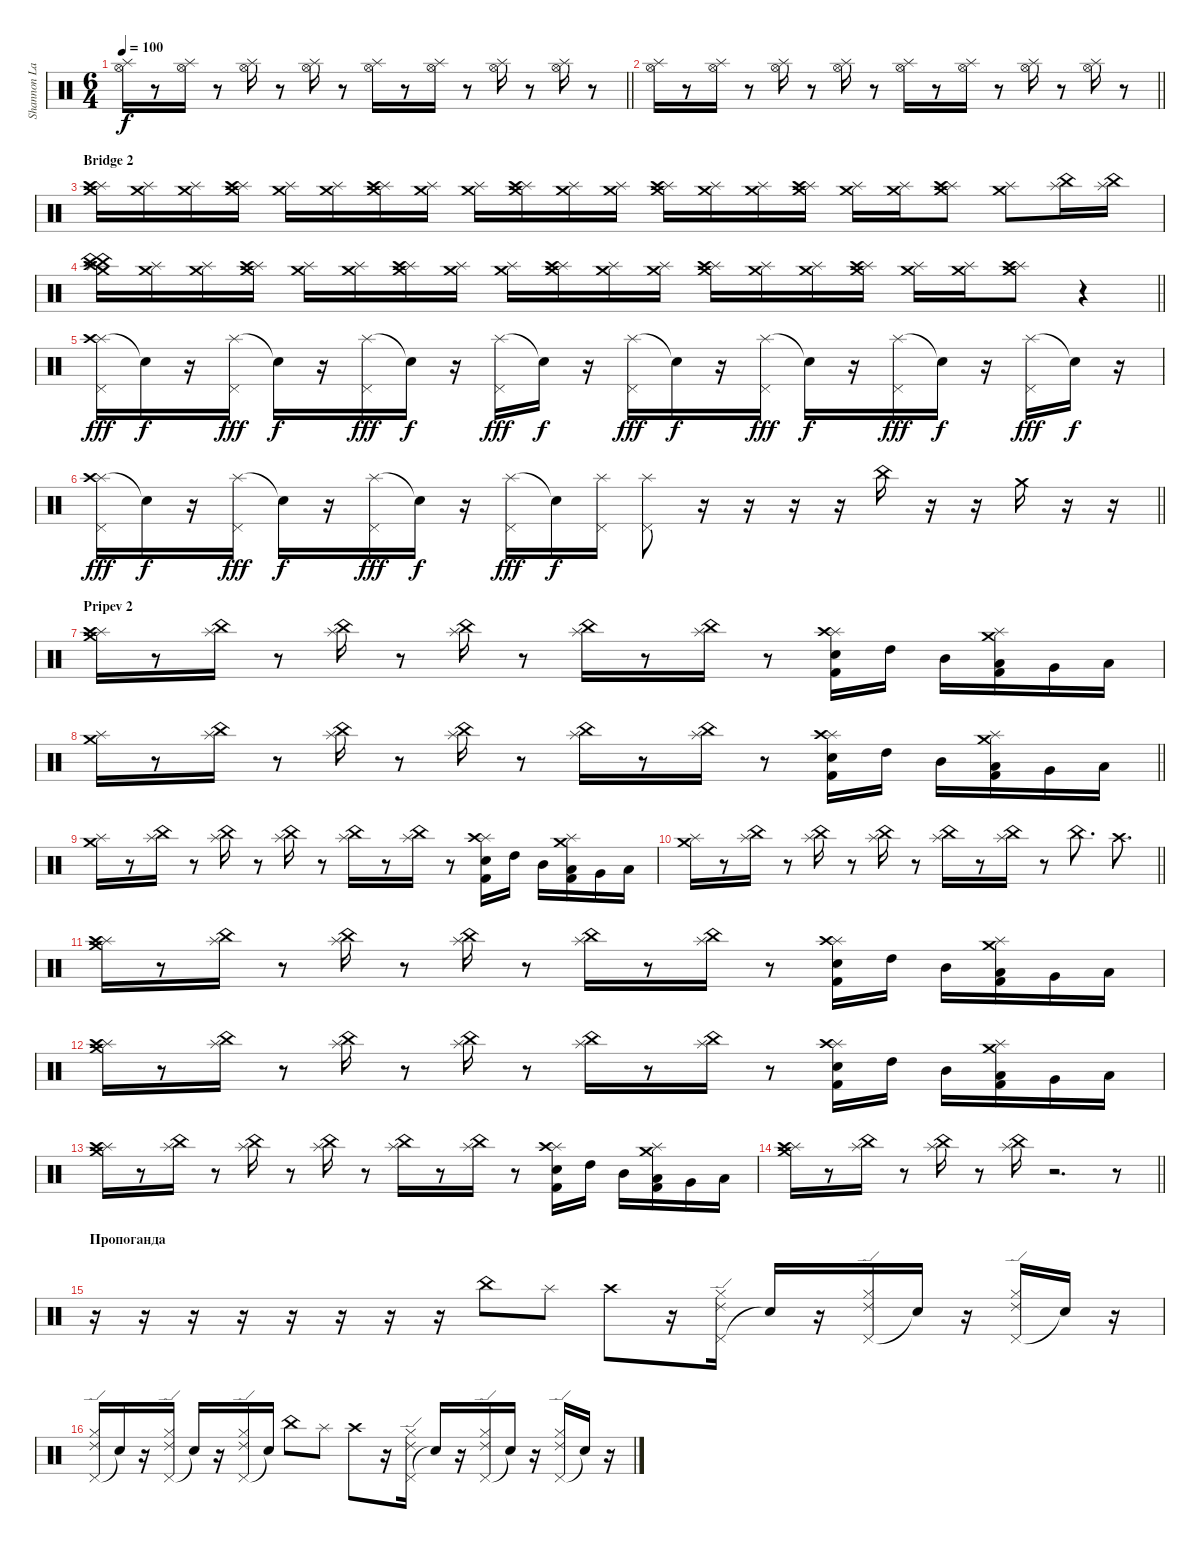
\track ("Shannon Larkin [1]" "Shannon La") {instrument percussion}
\staff {score}
\articulation defaults
\ts (6 4)
\tempo 100
\clef neutral
\barLineRight lightlight
\ks c
("Splash (hit)" "Hi-Hat (open)").16{dy f} r.8 ("Splash (hit)" "Hi-Hat (open)").16 r.8 ("Splash (hit)" "Hi-Hat (open)").16 r.8 ("Splash (hit)" "Hi-Hat (open)").16 r.8 ("Splash (hit)" "Hi-Hat (open)").16 r.8 ("Splash (hit)" "Hi-Hat (open)").16 r.8 ("Splash (hit)" "Hi-Hat (open)").16 r.8 ("Splash (hit)" "Hi-Hat (open)").16 r.8 |
\barLineRight lightlight
("Splash (hit)" "Hi-Hat (open)").16 r.8 ("Splash (hit)" "Hi-Hat (open)").16 r.8 ("Splash (hit)" "Hi-Hat (open)").16 r.8 ("Splash (hit)" "Hi-Hat (open)").16 r.8 ("Splash (hit)" "Hi-Hat (open)").16 r.8 ("Splash (hit)" "Hi-Hat (open)").16 r.8 ("Splash (hit)" "Hi-Hat (open)").16 r.8 ("Splash (hit)" "Hi-Hat (open)").16 r.8 |
\section ("" "Bridge 2")
("Splash (hit)" "Crash high (hit)" "Crash medium (hit)").16 ("Splash (hit)" "Crash medium (hit)").16 ("Splash (hit)" "Crash medium (hit)").16 ("Splash (hit)" "Crash high (hit)" "Crash medium (hit)").16 ("Splash (hit)" "Crash medium (hit)").16 ("Splash (hit)" "Crash medium (hit)").16 ("Splash (hit)" "Crash high (hit)" "Crash medium (hit)").16 ("Splash (hit)" "Crash medium (hit)").16 ("Splash (hit)" "Crash medium (hit)").16 ("Splash (hit)" "Crash high (hit)" "Crash medium (hit)").16 ("Splash (hit)" "Crash medium (hit)").16 ("Splash (hit)" "Crash medium (hit)").16 ("Splash (hit)" "Crash high (hit)" "Crash medium (hit)").16 ("Splash (hit)" "Crash medium (hit)").16 ("Splash (hit)" "Crash medium (hit)").16 ("Splash (hit)" "Crash high (hit)" "Crash medium (hit)").16 ("Splash (hit)" "Crash medium (hit)").16 ("Splash (hit)" "Crash medium (hit)").16 ("Splash (hit)" "Crash high (hit)" "Crash medium (hit)").8 ("Splash (hit)" "Crash medium (hit)").8 ("Splash (hit)" "China (hit)").16 ("Splash (hit)" "China (hit)").16 |
\barLineRight lightlight
("Splash (hit)" "China (hit)" "Crash high (hit)" "China (hit)" "Crash medium (hit)").16 ("Splash (hit)" "Crash medium (hit)").16 ("Splash (hit)" "Crash medium (hit)").16 ("Splash (hit)" "Crash high (hit)" "Crash medium (hit)").16 ("Splash (hit)" "Crash medium (hit)").16 ("Splash (hit)" "Crash medium (hit)").16 ("Splash (hit)" "Crash high (hit)" "Crash medium (hit)").16 ("Splash (hit)" "Crash medium (hit)").16 ("Splash (hit)" "Crash medium (hit)").16 ("Splash (hit)" "Crash high (hit)" "Crash medium (hit)").16 ("Splash (hit)" "Crash medium (hit)").16 ("Splash (hit)" "Crash medium (hit)").16 ("Splash (hit)" "Crash high (hit)" "Crash medium (hit)").16 ("Splash (hit)" "Crash medium (hit)").16 ("Splash (hit)" "Crash medium (hit)").16 ("Splash (hit)" "Crash high (hit)" "Crash medium (hit)").16 ("Splash (hit)" "Crash medium (hit)").16 ("Splash (hit)" "Crash medium (hit)").16 ("Splash (hit)" "Crash high (hit)" "Crash medium (hit)").8 r.4 |
("Splash (hit)" "Pedal Hi-Hat (hit)" "Crash high (hit)").16{dy fff} "Snare (hit)"{t}.16{dy f} r.16 ("Splash (hit)" "Pedal Hi-Hat (hit)").16{dy fff} "Snare (hit)"{t}.16{dy f} r.16 ("Splash (hit)" "Pedal Hi-Hat (hit)").16{dy fff} "Snare (hit)"{t}.16{dy f} r.16 ("Splash (hit)" "Pedal Hi-Hat (hit)").16{dy fff} "Snare (hit)"{t}.16{dy f} r.16 ("Splash (hit)" "Pedal Hi-Hat (hit)").16{dy fff} "Snare (hit)"{t}.16{dy f} r.16 ("Splash (hit)" "Pedal Hi-Hat (hit)").16{dy fff} "Snare (hit)"{t}.16{dy f} r.16 ("Splash (hit)" "Pedal Hi-Hat (hit)").16{dy fff} "Snare (hit)"{t}.16{dy f} r.16 ("Splash (hit)" "Pedal Hi-Hat (hit)").16{dy fff} "Snare (hit)"{t}.16{dy f} r.16 |
\barLineRight lightlight
("Splash (hit)" "Pedal Hi-Hat (hit)" "Crash high (hit)").16{dy fff} "Snare (hit)"{t}.16{dy f} r.16 ("Splash (hit)" "Pedal Hi-Hat (hit)").16{dy fff} "Snare (hit)"{t}.16{dy f} r.16 ("Splash (hit)" "Pedal Hi-Hat (hit)").16{dy fff} "Snare (hit)"{t}.16{dy f} r.16 ("Splash (hit)" "Pedal Hi-Hat (hit)").16{dy fff} "Snare (hit)"{t}.16{dy f} ("Splash (hit)" "Pedal Hi-Hat (hit)").16 ("Splash (hit)" "Pedal Hi-Hat (hit)").8 r.16 r.16 r.16 r.16 "China (hit)".16 r.16 r.16 "Crash medium (hit)".16 r.16 r.16 |
\section ("" "Pripev 2")
("Splash (hit)" "Crash high (hit)" "Crash medium (hit)").16 r.8 ("Splash (hit)" "China (hit)").16 r.8 ("Splash (hit)" "China (hit)").16 r.8 ("Splash (hit)" "China (hit)").16 r.8 ("Splash (hit)" "China (hit)").16 r.8 ("Splash (hit)" "China (hit)").16 r.8 ("Splash (hit)" "Crash high (hit)" "Electric Snare (hit)" "Kick (hit) 2").16 "High Tom (hit)".16 "Mid Tom (hit)".16 ("Splash (hit)" "Crash medium (hit)" "Low Tom (hit)" "Kick (hit) 2").16 "Very Low Tom (hit)".16 "Low Floor Tom (hit)".16 |
\barLineRight lightlight
("Splash (hit)" "Crash medium (hit)").16 r.8 ("Splash (hit)" "China (hit)").16 r.8 ("Splash (hit)" "China (hit)").16 r.8 ("Splash (hit)" "China (hit)").16 r.8 ("Splash (hit)" "China (hit)").16 r.8 ("Splash (hit)" "China (hit)").16 r.8 ("Splash (hit)" "Crash high (hit)" "Electric Snare (hit)" "Kick (hit) 2").16 "High Tom (hit)".16 "Mid Tom (hit)".16 ("Splash (hit)" "Crash medium (hit)" "Low Tom (hit)" "Kick (hit) 2").16 "Very Low Tom (hit)".16 "Low Floor Tom (hit)".16 |
("Splash (hit)" "Crash medium (hit)").16 r.8 ("Splash (hit)" "China (hit)").16 r.8 ("Splash (hit)" "China (hit)").16 r.8 ("Splash (hit)" "China (hit)").16 r.8 ("Splash (hit)" "China (hit)").16 r.8 ("Splash (hit)" "China (hit)").16 r.8 ("Splash (hit)" "Crash high (hit)" "Electric Snare (hit)" "Kick (hit) 2").16 "High Tom (hit)".16 "Mid Tom (hit)".16 ("Splash (hit)" "Crash medium (hit)" "Low Tom (hit)" "Kick (hit) 2").16 "Very Low Tom (hit)".16 "Low Floor Tom (hit)".16 |
\barLineRight lightlight
("Splash (hit)" "Crash medium (hit)").16 r.8 ("Splash (hit)" "China (hit)").16 r.8 ("Splash (hit)" "China (hit)").16 r.8 ("Splash (hit)" "China (hit)").16 r.8 ("Splash (hit)" "China (hit)").16 r.8 ("Splash (hit)" "China (hit)").16 r.8 "China (hit)".8{d} "Crash high (hit)".8{d} |
("Splash (hit)" "Crash high (hit)" "Crash medium (hit)").16 r.8 ("Splash (hit)" "China (hit)").16 r.8 ("Splash (hit)" "China (hit)").16 r.8 ("Splash (hit)" "China (hit)").16 r.8 ("Splash (hit)" "China (hit)").16 r.8 ("Splash (hit)" "China (hit)").16 r.8 ("Splash (hit)" "Crash high (hit)" "Electric Snare (hit)" "Kick (hit) 2").16 "High Tom (hit)".16 "Mid Tom (hit)".16 ("Splash (hit)" "Crash medium (hit)" "Low Tom (hit)" "Kick (hit) 2").16 "Very Low Tom (hit)".16 "Low Floor Tom (hit)".16 |
("Splash (hit)" "Crash high (hit)" "Crash medium (hit)").16 r.8 ("Splash (hit)" "China (hit)").16 r.8 ("Splash (hit)" "China (hit)").16 r.8 ("Splash (hit)" "China (hit)").16 r.8 ("Splash (hit)" "China (hit)").16 r.8 ("Splash (hit)" "China (hit)").16 r.8 ("Splash (hit)" "Crash high (hit)" "Electric Snare (hit)" "Kick (hit) 2").16 "High Tom (hit)".16 "Mid Tom (hit)".16 ("Splash (hit)" "Crash medium (hit)" "Low Tom (hit)" "Kick (hit) 2").16 "Very Low Tom (hit)".16 "Low Floor Tom (hit)".16 |
("Splash (hit)" "Crash high (hit)" "Crash medium (hit)").16 r.8 ("Splash (hit)" "China (hit)").16 r.8 ("Splash (hit)" "China (hit)").16 r.8 ("Splash (hit)" "China (hit)").16 r.8 ("Splash (hit)" "China (hit)").16 r.8 ("Splash (hit)" "China (hit)").16 r.8 ("Splash (hit)" "Crash high (hit)" "Electric Snare (hit)" "Kick (hit) 2").16 "High Tom (hit)".16 "Mid Tom (hit)".16 ("Splash (hit)" "Crash medium (hit)" "Low Tom (hit)" "Kick (hit) 2").16 "Very Low Tom (hit)".16 "Low Floor Tom (hit)".16 |
\barLineRight lightlight
("Splash (hit)" "Crash high (hit)" "Crash medium (hit)").16 r.8 ("Splash (hit)" "China (hit)").16 r.8 ("Splash (hit)" "China (hit)").16 r.8 ("Splash (hit)" "China (hit)").16 r.2{d} r.8 |
\section ("" "Пропоганда")
r.16 r.16 r.16 r.16 r.16 r.16 r.16 r.16 "China (hit)".8 "Splash (hit)".8 "Crash high (hit)".8 r.16 ("Pedal Hi-Hat (hit)" "Hi-Hat (closed)" "Ride (edge) 2").16 "Snare (hit)"{t}.16 r.16 ("Pedal Hi-Hat (hit)" "Hi-Hat (closed)" "Ride (edge) 2").16 "Snare (hit)"{t}.16 r.16 ("Pedal Hi-Hat (hit)" "Hi-Hat (closed)" "Ride (edge) 2").16 "Snare (hit)"{t}.16 r.16 |
("Pedal Hi-Hat (hit)" "Hi-Hat (closed)" "Ride (edge) 2").16 "Snare (hit)"{t}.16 r.16 ("Pedal Hi-Hat (hit)" "Hi-Hat (closed)" "Ride (edge) 2").16 "Snare (hit)"{t}.16 r.16 ("Pedal Hi-Hat (hit)" "Hi-Hat (closed)" "Ride (edge) 2").16 "Snare (hit)"{t}.16 "China (hit)".8 "Splash (hit)".8 "Crash high (hit)".8 r.16 ("Pedal Hi-Hat (hit)" "Hi-Hat (closed)" "Ride (edge) 2").16 "Snare (hit)"{t}.16 r.16 ("Pedal Hi-Hat (hit)" "Hi-Hat (closed)" "Ride (edge) 2").16 "Snare (hit)"{t}.16 r.16 ("Pedal Hi-Hat (hit)" "Hi-Hat (closed)" "Ride (edge) 2").16 "Snare (hit)"{t}.16 r.16
